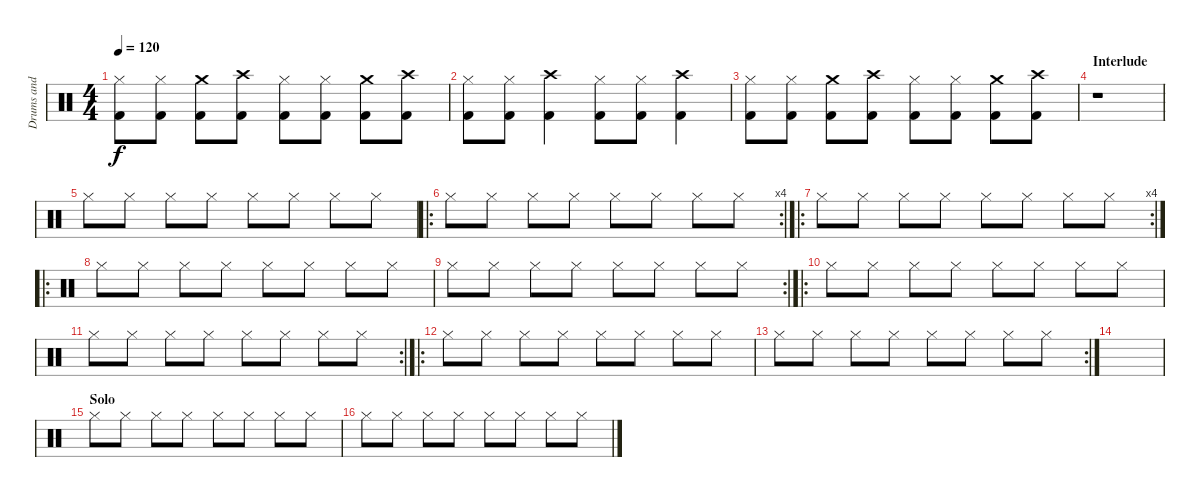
\track ("Drums and Percussion" "Drums and ") {instrument percussion}
\staff {score}
\articulation defaults
\ts (4 4)
\tempo 120
\clef neutral
\ks c
("Hi-Hat (closed)" "Kick (hit) 2").8{dy f} ("Hi-Hat (closed)" "Kick (hit) 2").8 ("Crash medium (hit)" "Kick (hit) 2").8 ("Crash high (hit)" "Kick (hit) 2").8 ("Hi-Hat (closed)" "Kick (hit) 2").8 ("Hi-Hat (closed)" "Kick (hit) 2").8 ("Crash medium (hit)" "Kick (hit) 2").8 ("Crash high (hit)" "Kick (hit) 2").8 |
("Hi-Hat (closed)" "Kick (hit) 2").8 ("Hi-Hat (closed)" "Kick (hit) 2").8 ("Crash high (hit)" "Kick (hit) 2").4 ("Hi-Hat (closed)" "Kick (hit) 2").8 ("Hi-Hat (closed)" "Kick (hit) 2").8 ("Crash high (hit)" "Kick (hit) 2").4 |
("Hi-Hat (closed)" "Kick (hit) 2").8 ("Hi-Hat (closed)" "Kick (hit) 2").8 ("Crash medium (hit)" "Kick (hit) 2").8 ("Crash high (hit)" "Kick (hit) 2").8 ("Hi-Hat (closed)" "Kick (hit) 2").8 ("Hi-Hat (closed)" "Kick (hit) 2").8 ("Crash medium (hit)" "Kick (hit) 2").8 ("Crash high (hit)" "Kick (hit) 2").8 |
\section ("" "Interlude")
r.1 |
"Hi-Hat (closed)".8 "Hi-Hat (closed)".8 "Hi-Hat (closed)".8 "Hi-Hat (closed)".8 "Hi-Hat (closed)".8 "Hi-Hat (closed)".8 "Hi-Hat (closed)".8 "Hi-Hat (closed)".8 |
\ro
\rc 4 "Hi-Hat (closed)".8 "Hi-Hat (closed)".8 "Hi-Hat (closed)".8 "Hi-Hat (closed)".8 "Hi-Hat (closed)".8 "Hi-Hat (closed)".8 "Hi-Hat (closed)".8 "Hi-Hat (closed)".8
|
\ro
\rc 4 "Hi-Hat (closed)".8 "Hi-Hat (closed)".8 "Hi-Hat (closed)".8 "Hi-Hat (closed)".8 "Hi-Hat (closed)".8 "Hi-Hat (closed)".8 "Hi-Hat (closed)".8 "Hi-Hat (closed)".8
|
\ro "Hi-Hat (closed)".8 "Hi-Hat (closed)".8 "Hi-Hat (closed)".8 "Hi-Hat (closed)".8 "Hi-Hat (closed)".8 "Hi-Hat (closed)".8 "Hi-Hat (closed)".8 "Hi-Hat (closed)".8
|
\rc 2 "Hi-Hat (closed)".8 "Hi-Hat (closed)".8 "Hi-Hat (closed)".8 "Hi-Hat (closed)".8 "Hi-Hat (closed)".8 "Hi-Hat (closed)".8 "Hi-Hat (closed)".8 "Hi-Hat (closed)".8
|
\ro "Hi-Hat (closed)".8 "Hi-Hat (closed)".8 "Hi-Hat (closed)".8 "Hi-Hat (closed)".8 "Hi-Hat (closed)".8 "Hi-Hat (closed)".8 "Hi-Hat (closed)".8 "Hi-Hat (closed)".8
|
\rc 2 "Hi-Hat (closed)".8 "Hi-Hat (closed)".8 "Hi-Hat (closed)".8 "Hi-Hat (closed)".8 "Hi-Hat (closed)".8 "Hi-Hat (closed)".8 "Hi-Hat (closed)".8 "Hi-Hat (closed)".8
|
\ro "Hi-Hat (closed)".8 "Hi-Hat (closed)".8 "Hi-Hat (closed)".8 "Hi-Hat (closed)".8 "Hi-Hat (closed)".8 "Hi-Hat (closed)".8 "Hi-Hat (closed)".8 "Hi-Hat (closed)".8
|
\rc 2 "Hi-Hat (closed)".8 "Hi-Hat (closed)".8 "Hi-Hat (closed)".8 "Hi-Hat (closed)".8 "Hi-Hat (closed)".8 "Hi-Hat (closed)".8 "Hi-Hat (closed)".8 "Hi-Hat (closed)".8
|
|
\section ("" "Solo")
"Hi-Hat (closed)".8 "Hi-Hat (closed)".8 "Hi-Hat (closed)".8 "Hi-Hat (closed)".8 "Hi-Hat (closed)".8 "Hi-Hat (closed)".8 "Hi-Hat (closed)".8 "Hi-Hat (closed)".8 |
"Hi-Hat (closed)".8 "Hi-Hat (closed)".8 "Hi-Hat (closed)".8 "Hi-Hat (closed)".8 "Hi-Hat (closed)".8 "Hi-Hat (closed)".8 "Hi-Hat (closed)".8 "Hi-Hat (closed)".8
